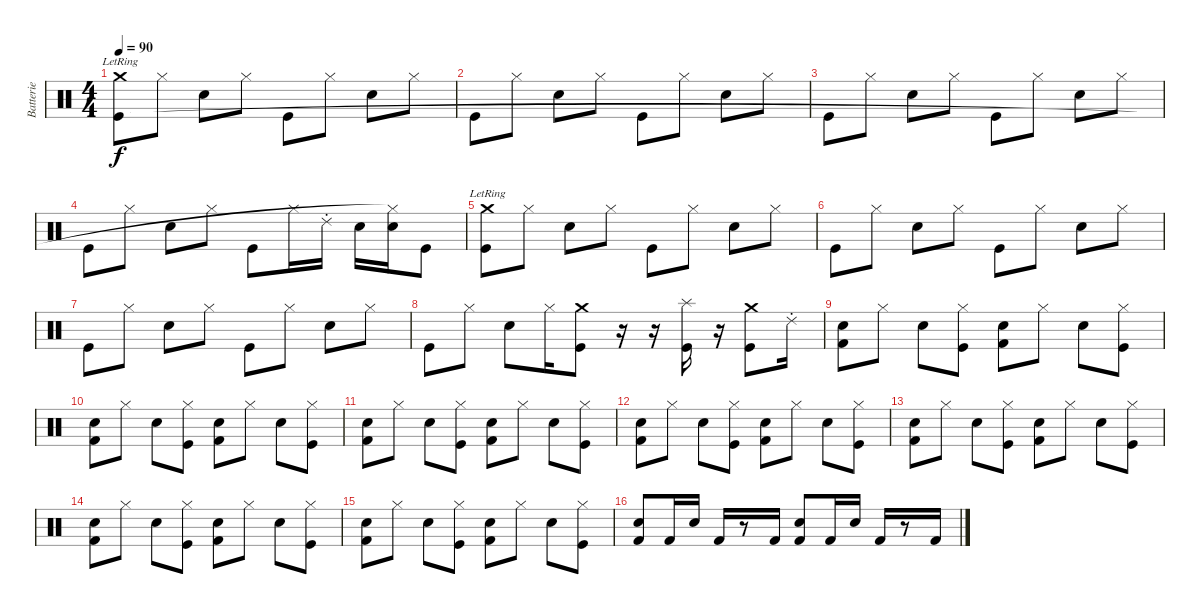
\track ("Batterie" "Batterie") {instrument percussion}
\staff {score}
\articulation defaults
\ts (4 4)
\tempo 90
\clef neutral
\ks c
("Crash medium (hit)"{lr} "Kick (hit)").8{dy f} "Hi-Hat (closed)".8 "Electric Snare (hit)".8 "Hi-Hat (closed)".8 "Kick (hit)".8 "Hi-Hat (closed)".8 "Electric Snare (hit)".8 "Hi-Hat (closed)".8 |
"Kick (hit)".8 "Hi-Hat (closed)".8 "Electric Snare (hit)".8 "Hi-Hat (closed)".8 "Kick (hit)".8 "Hi-Hat (closed)".8 "Electric Snare (hit)".8 "Hi-Hat (closed)".8 |
"Kick (hit)".8 "Hi-Hat (closed)".8 "Electric Snare (hit)".8 "Hi-Hat (closed)".8 "Kick (hit)".8 "Hi-Hat (closed)".8 "Electric Snare (hit)".8 "Hi-Hat (closed)".8 |
"Kick (hit)".8 "Hi-Hat (closed)".8 "Electric Snare (hit)".8 "Hi-Hat (closed)".8 "Kick (hit)".8 "Hi-Hat (closed)".16 "Ride (choke) 2".16 "Electric Snare (hit)".16 ("Electric Snare (hit)" "Hi-Hat (closed)"{t}).16 "Kick (hit)".8 |
("Crash medium (hit)"{lr} "Kick (hit)").8 "Hi-Hat (closed)".8 "Electric Snare (hit)".8 "Hi-Hat (closed)".8 "Kick (hit)".8 "Hi-Hat (closed)".8 "Electric Snare (hit)".8 "Hi-Hat (closed)".8 |
"Kick (hit)".8 "Hi-Hat (closed)".8 "Electric Snare (hit)".8 "Hi-Hat (closed)".8 "Kick (hit)".8 "Hi-Hat (closed)".8 "Electric Snare (hit)".8 "Hi-Hat (closed)".8 |
"Kick (hit)".8 "Hi-Hat (closed)".8 "Electric Snare (hit)".8 "Hi-Hat (closed)".8 "Kick (hit)".8 "Hi-Hat (closed)".8 "Electric Snare (hit)".8 "Hi-Hat (closed)".8 |
"Kick (hit)".8 "Hi-Hat (closed)".8 "Electric Snare (hit)".8 "Hi-Hat (closed)".16 ("Crash medium (hit)" "Kick (hit)").8 r.16 r.16 ("Splash (hit)" "Kick (hit)").16 r.16 ("Crash medium (hit)" "Kick (hit)").8 "Ride (choke) 2".16 |
("Electric Snare (hit)" "Kick (hit) 2").8 "Hi-Hat (closed)".8 "Electric Snare (hit)".8 ("Hi-Hat (closed)" "Kick (hit)").8 ("Electric Snare (hit)" "Kick (hit) 2").8 "Hi-Hat (closed)".8 "Electric Snare (hit)".8 ("Hi-Hat (closed)" "Kick (hit)").8 |
("Electric Snare (hit)" "Kick (hit) 2").8 "Hi-Hat (closed)".8 "Electric Snare (hit)".8 ("Hi-Hat (closed)" "Kick (hit)").8 ("Electric Snare (hit)" "Kick (hit) 2").8 "Hi-Hat (closed)".8 "Electric Snare (hit)".8 ("Hi-Hat (closed)" "Kick (hit)").8 |
("Electric Snare (hit)" "Kick (hit) 2").8 "Hi-Hat (closed)".8 "Electric Snare (hit)".8 ("Hi-Hat (closed)" "Kick (hit)").8 ("Electric Snare (hit)" "Kick (hit) 2").8 "Hi-Hat (closed)".8 "Electric Snare (hit)".8 ("Hi-Hat (closed)" "Kick (hit)").8 |
("Electric Snare (hit)" "Kick (hit) 2").8 "Hi-Hat (closed)".8 "Electric Snare (hit)".8 ("Hi-Hat (closed)" "Kick (hit)").8 ("Electric Snare (hit)" "Kick (hit) 2").8 "Hi-Hat (closed)".8 "Electric Snare (hit)".8 ("Hi-Hat (closed)" "Kick (hit)").8 |
("Electric Snare (hit)" "Kick (hit) 2").8 "Hi-Hat (closed)".8 "Electric Snare (hit)".8 ("Hi-Hat (closed)" "Kick (hit)").8 ("Electric Snare (hit)" "Kick (hit) 2").8 "Hi-Hat (closed)".8 "Electric Snare (hit)".8 ("Hi-Hat (closed)" "Kick (hit)").8 |
("Electric Snare (hit)" "Kick (hit) 2").8 "Hi-Hat (closed)".8 "Electric Snare (hit)".8 ("Hi-Hat (closed)" "Kick (hit)").8 ("Electric Snare (hit)" "Kick (hit) 2").8 "Hi-Hat (closed)".8 "Electric Snare (hit)".8 ("Hi-Hat (closed)" "Kick (hit)").8 |
("Electric Snare (hit)" "Kick (hit) 2").8 "Hi-Hat (closed)".8 "Electric Snare (hit)".8 ("Hi-Hat (closed)" "Kick (hit)").8 ("Electric Snare (hit)" "Kick (hit) 2").8 "Hi-Hat (closed)".8 "Electric Snare (hit)".8 ("Hi-Hat (closed)" "Kick (hit)").8 |
("Electric Snare (hit)" "Kick (hit) 2").8{volume 0} "Kick (hit) 2".16 "Electric Snare (hit)".16 "Kick (hit) 2".16 r.8 "Kick (hit) 2".16 ("Electric Snare (hit)" "Kick (hit) 2").8 "Kick (hit) 2".16 "Electric Snare (hit)".16 "Kick (hit) 2".16 r.8 "Kick (hit) 2".16
